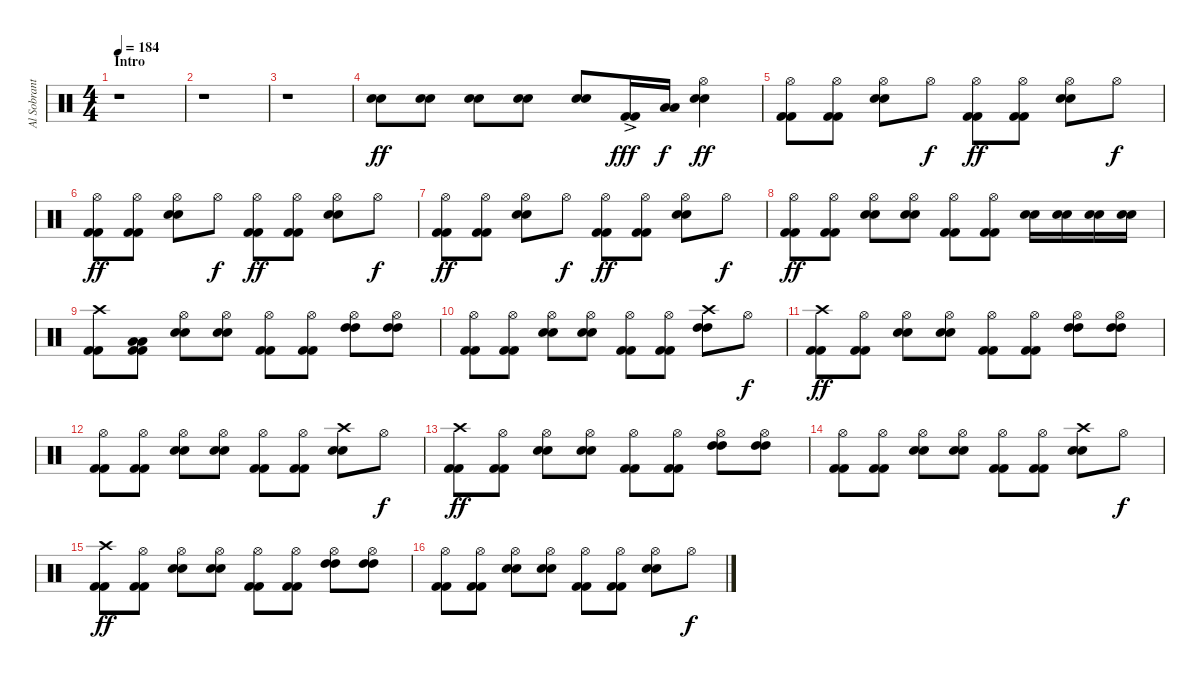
\track ("Al Sobrante (Drums)" "Al Sobrant") {instrument percussion}
\staff {score}
\articulation defaults
\ts (4 4)
\section ("" "Intro")
\tempo 184
\clef neutral
\ks c
r.1{dy ff} |
r.1 |
r.1 |
("Electric Snare (hit)" "Electric Snare (hit)").8 ("Electric Snare (hit)" "Electric Snare (hit)").8 ("Electric Snare (hit)" "Electric Snare (hit)").8 ("Electric Snare (hit)" "Electric Snare (hit)").8 ("Electric Snare (hit)" "Electric Snare (hit)").8 ("Kick (hit) 2"{ac} "Kick (hit) 2"{ac}).16{dy fff} ("Low Floor Tom (hit)" "Low Floor Tom (hit)").16{dy f} ("Electric Snare (hit)" "Electric Snare (hit)" "Hi-Hat (open)").4{dy ff} |
("Kick (hit) 2" "Kick (hit) 2" "Hi-Hat (open)").8 ("Kick (hit) 2" "Kick (hit) 2" "Hi-Hat (open)").8 ("Electric Snare (hit)" "Electric Snare (hit)" "Hi-Hat (open)").8 "Hi-Hat (open)".8{dy f} ("Kick (hit) 2" "Kick (hit) 2" "Hi-Hat (open)").8{dy ff} ("Kick (hit) 2" "Kick (hit) 2" "Hi-Hat (open)").8 ("Electric Snare (hit)" "Electric Snare (hit)" "Hi-Hat (open)").8 "Hi-Hat (open)".8{dy f} |
("Kick (hit) 2" "Kick (hit) 2" "Hi-Hat (open)").8{dy ff} ("Kick (hit) 2" "Kick (hit) 2" "Hi-Hat (open)").8 ("Electric Snare (hit)" "Electric Snare (hit)" "Hi-Hat (open)").8 "Hi-Hat (open)".8{dy f} ("Kick (hit) 2" "Kick (hit) 2" "Hi-Hat (open)").8{dy ff} ("Kick (hit) 2" "Kick (hit) 2" "Hi-Hat (open)").8 ("Electric Snare (hit)" "Electric Snare (hit)" "Hi-Hat (open)").8 "Hi-Hat (open)".8{dy f} |
("Kick (hit) 2" "Kick (hit) 2" "Hi-Hat (open)").8{dy ff} ("Kick (hit) 2" "Kick (hit) 2" "Hi-Hat (open)").8 ("Electric Snare (hit)" "Electric Snare (hit)" "Hi-Hat (open)").8 "Hi-Hat (open)".8{dy f} ("Kick (hit) 2" "Kick (hit) 2" "Hi-Hat (open)").8{dy ff} ("Kick (hit) 2" "Kick (hit) 2" "Hi-Hat (open)").8 ("Electric Snare (hit)" "Electric Snare (hit)" "Hi-Hat (open)").8 "Hi-Hat (open)".8{dy f} |
("Kick (hit) 2" "Kick (hit) 2" "Hi-Hat (open)").8{dy ff} ("Kick (hit) 2" "Kick (hit) 2" "Hi-Hat (open)").8 ("Electric Snare (hit)" "Electric Snare (hit)" "Hi-Hat (open)").8 ("Electric Snare (hit)" "Electric Snare (hit)" "Hi-Hat (open)").8 ("Kick (hit) 2" "Kick (hit) 2" "Hi-Hat (open)").8 ("Kick (hit) 2" "Kick (hit) 2" "Hi-Hat (open)").8 ("Electric Snare (hit)" "Electric Snare (hit)").16 ("Electric Snare (hit)" "Electric Snare (hit)").16 ("Electric Snare (hit)" "Electric Snare (hit)").16 ("Electric Snare (hit)" "Electric Snare (hit)").16 |
("Kick (hit) 2" "Kick (hit) 2" "Crash high (hit)").8 ("Kick (hit) 2" "Kick (hit) 2" "Low Tom (hit)" "Low Tom (hit)").8 ("Electric Snare (hit)" "Electric Snare (hit)" "Hi-Hat (open)").8 ("Electric Snare (hit)" "Electric Snare (hit)" "Hi-Hat (open)").8 ("Kick (hit) 2" "Kick (hit) 2" "Hi-Hat (open)").8 ("Kick (hit) 2" "Kick (hit) 2" "Hi-Hat (open)").8 ("High Tom (hit)" "High Tom (hit)" "Hi-Hat (open)").8 ("High Tom (hit)" "High Tom (hit)" "Hi-Hat (open)").8 |
("Kick (hit) 2" "Kick (hit) 2" "Hi-Hat (open)").8 ("Kick (hit) 2" "Kick (hit) 2" "Hi-Hat (open)").8 ("Electric Snare (hit)" "Electric Snare (hit)" "Hi-Hat (open)").8 ("Electric Snare (hit)" "Electric Snare (hit)" "Hi-Hat (open)").8 ("Kick (hit) 2" "Kick (hit) 2" "Hi-Hat (open)").8 ("Kick (hit) 2" "Kick (hit) 2" "Hi-Hat (open)").8 ("High Tom (hit)" "High Tom (hit)" "Crash high (hit)").8 "Hi-Hat (open)".8{dy f} |
("Kick (hit) 2" "Kick (hit) 2" "Crash high (hit)").8{dy ff} ("Kick (hit) 2" "Kick (hit) 2" "Hi-Hat (open)").8 ("Electric Snare (hit)" "Electric Snare (hit)" "Hi-Hat (open)").8 ("Electric Snare (hit)" "Electric Snare (hit)" "Hi-Hat (open)").8 ("Kick (hit) 2" "Kick (hit) 2" "Hi-Hat (open)").8 ("Kick (hit) 2" "Kick (hit) 2" "Hi-Hat (open)").8 ("High Tom (hit)" "High Tom (hit)" "Hi-Hat (open)").8 ("High Tom (hit)" "High Tom (hit)" "Hi-Hat (open)").8 |
("Kick (hit) 2" "Kick (hit) 2" "Hi-Hat (open)").8 ("Kick (hit) 2" "Kick (hit) 2" "Hi-Hat (open)").8 ("Electric Snare (hit)" "Electric Snare (hit)" "Hi-Hat (open)").8 ("Electric Snare (hit)" "Electric Snare (hit)" "Hi-Hat (open)").8 ("Kick (hit) 2" "Kick (hit) 2" "Hi-Hat (open)").8 ("Kick (hit) 2" "Kick (hit) 2" "Hi-Hat (open)").8 ("Electric Snare (hit)" "Electric Snare (hit)" "Crash high (hit)").8 "Hi-Hat (open)".8{dy f} |
("Kick (hit) 2" "Kick (hit) 2" "Crash high (hit)").8{dy ff} ("Kick (hit) 2" "Kick (hit) 2" "Hi-Hat (open)").8 ("Electric Snare (hit)" "Electric Snare (hit)" "Hi-Hat (open)").8 ("Electric Snare (hit)" "Electric Snare (hit)" "Hi-Hat (open)").8 ("Kick (hit) 2" "Kick (hit) 2" "Hi-Hat (open)").8 ("Kick (hit) 2" "Kick (hit) 2" "Hi-Hat (open)").8 ("High Tom (hit)" "High Tom (hit)" "Hi-Hat (open)").8 ("High Tom (hit)" "High Tom (hit)" "Hi-Hat (open)").8 |
("Kick (hit) 2" "Kick (hit) 2" "Hi-Hat (open)").8 ("Kick (hit) 2" "Kick (hit) 2" "Hi-Hat (open)").8 ("Electric Snare (hit)" "Electric Snare (hit)" "Hi-Hat (open)").8 ("Electric Snare (hit)" "Electric Snare (hit)" "Hi-Hat (open)").8 ("Kick (hit) 2" "Kick (hit) 2" "Hi-Hat (open)").8 ("Kick (hit) 2" "Kick (hit) 2" "Hi-Hat (open)").8 ("Electric Snare (hit)" "Electric Snare (hit)" "Crash high (hit)").8 "Hi-Hat (open)".8{dy f} |
("Kick (hit) 2" "Kick (hit) 2" "Crash high (hit)").8{dy ff} ("Kick (hit) 2" "Kick (hit) 2" "Hi-Hat (open)").8 ("Electric Snare (hit)" "Electric Snare (hit)" "Hi-Hat (open)").8 ("Electric Snare (hit)" "Electric Snare (hit)" "Hi-Hat (open)").8 ("Kick (hit) 2" "Kick (hit) 2" "Hi-Hat (open)").8 ("Kick (hit) 2" "Kick (hit) 2" "Hi-Hat (open)").8 ("High Tom (hit)" "High Tom (hit)" "Hi-Hat (open)").8 ("High Tom (hit)" "High Tom (hit)" "Hi-Hat (open)").8 |
("Kick (hit) 2" "Kick (hit) 2" "Hi-Hat (open)").8 ("Kick (hit) 2" "Kick (hit) 2" "Hi-Hat (open)").8 ("Electric Snare (hit)" "Electric Snare (hit)" "Hi-Hat (open)").8 ("Electric Snare (hit)" "Electric Snare (hit)" "Hi-Hat (open)").8 ("Kick (hit) 2" "Kick (hit) 2" "Hi-Hat (open)").8 ("Kick (hit) 2" "Kick (hit) 2" "Hi-Hat (open)").8 ("Electric Snare (hit)" "Electric Snare (hit)" "Hi-Hat (open)").8 "Hi-Hat (open)".8{dy f}
